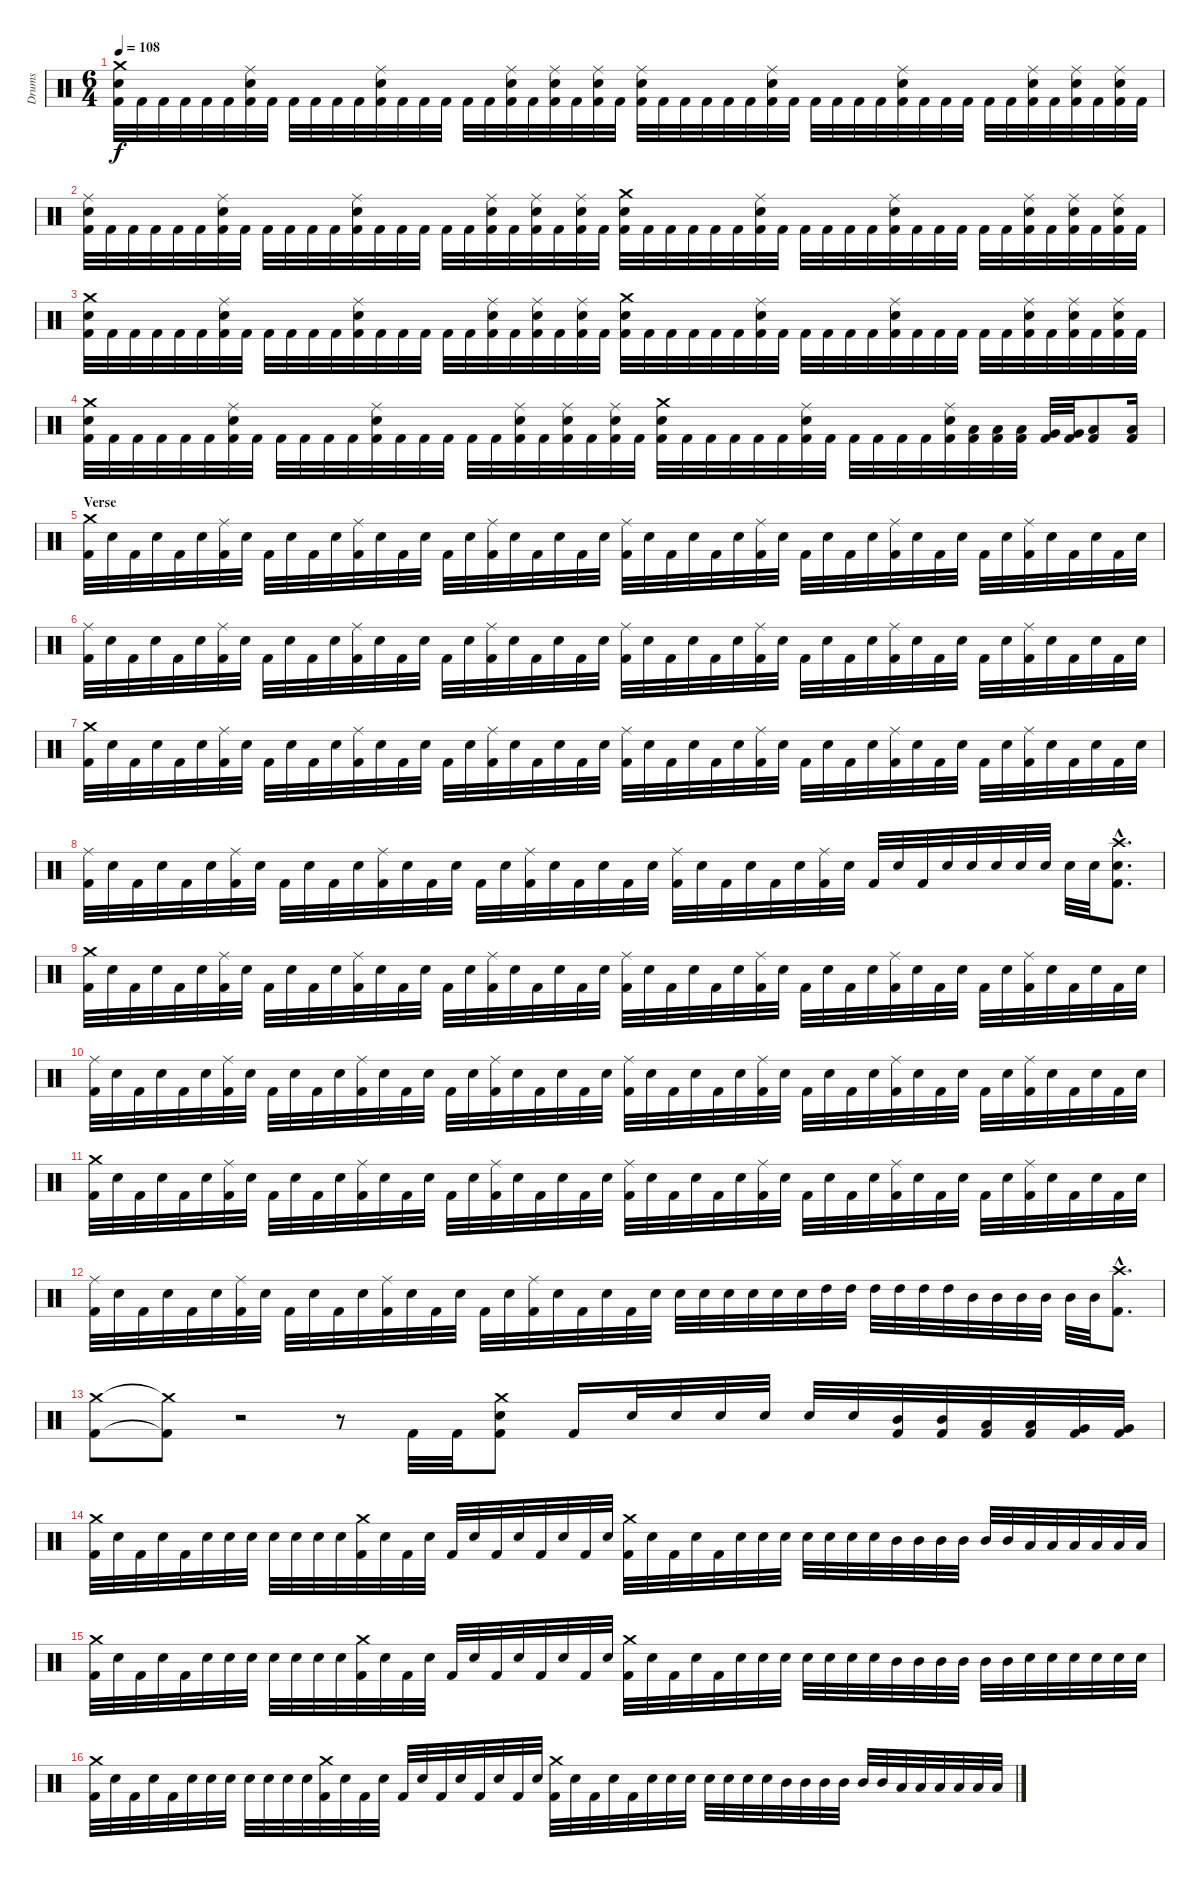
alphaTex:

\track ("Drums" "Drums") {instrument percussion}
\staff {score}
\articulation defaults
\ts (6 4)
\tempo 108
\clef neutral
\ks c
("Crash medium (hit)" "Electric Snare (hit)" "Kick (hit) 2").32{dy f} "Kick (hit) 2".32 "Kick (hit) 2".32 "Kick (hit) 2".32 "Kick (hit) 2".32 "Kick (hit) 2".32 ("Ride (middle)" "Electric Snare (hit)" "Kick (hit) 2").32 "Kick (hit) 2".32 "Kick (hit) 2".32 "Kick (hit) 2".32 "Kick (hit) 2".32 "Kick (hit) 2".32 ("Ride (middle)" "Electric Snare (hit)" "Kick (hit) 2").32 "Kick (hit) 2".32 "Kick (hit) 2".32 "Kick (hit) 2".32 "Kick (hit) 2".32 "Kick (hit) 2".32 ("Ride (middle)" "Electric Snare (hit)" "Kick (hit) 2").32 "Kick (hit) 2".32 ("Ride (middle)" "Electric Snare (hit)" "Kick (hit) 2").32 "Kick (hit) 2".32 ("Ride (middle)" "Electric Snare (hit)" "Kick (hit) 2").32 "Kick (hit) 2".32 ("Ride (middle)" "Electric Snare (hit)" "Kick (hit) 2").32 "Kick (hit) 2".32 "Kick (hit) 2".32 "Kick (hit) 2".32 "Kick (hit) 2".32 "Kick (hit) 2".32 ("Ride (middle)" "Electric Snare (hit)" "Kick (hit) 2").32 "Kick (hit) 2".32 "Kick (hit) 2".32 "Kick (hit) 2".32 "Kick (hit) 2".32 "Kick (hit) 2".32 ("Ride (middle)" "Electric Snare (hit)" "Kick (hit) 2").32 "Kick (hit) 2".32 "Kick (hit) 2".32 "Kick (hit) 2".32 "Kick (hit) 2".32 "Kick (hit) 2".32 ("Ride (middle)" "Electric Snare (hit)" "Kick (hit) 2").32 "Kick (hit) 2".32 ("Ride (middle)" "Electric Snare (hit)" "Kick (hit) 2").32 "Kick (hit) 2".32 ("Ride (middle)" "Electric Snare (hit)" "Kick (hit) 2").32 "Kick (hit) 2".32 |
("Ride (middle)" "Electric Snare (hit)" "Kick (hit) 2").32 "Kick (hit) 2".32 "Kick (hit) 2".32 "Kick (hit) 2".32 "Kick (hit) 2".32 "Kick (hit) 2".32 ("Ride (middle)" "Electric Snare (hit)" "Kick (hit) 2").32 "Kick (hit) 2".32 "Kick (hit) 2".32 "Kick (hit) 2".32 "Kick (hit) 2".32 "Kick (hit) 2".32 ("Ride (middle)" "Electric Snare (hit)" "Kick (hit) 2").32 "Kick (hit) 2".32 "Kick (hit) 2".32 "Kick (hit) 2".32 "Kick (hit) 2".32 "Kick (hit) 2".32 ("Ride (middle)" "Electric Snare (hit)" "Kick (hit) 2").32 "Kick (hit) 2".32 ("Ride (middle)" "Electric Snare (hit)" "Kick (hit) 2").32 "Kick (hit) 2".32 ("Ride (middle)" "Electric Snare (hit)" "Kick (hit) 2").32 "Kick (hit) 2".32 ("Crash medium (hit)" "Electric Snare (hit)" "Kick (hit) 2").32 "Kick (hit) 2".32 "Kick (hit) 2".32 "Kick (hit) 2".32 "Kick (hit) 2".32 "Kick (hit) 2".32 ("Ride (middle)" "Electric Snare (hit)" "Kick (hit) 2").32 "Kick (hit) 2".32 "Kick (hit) 2".32 "Kick (hit) 2".32 "Kick (hit) 2".32 "Kick (hit) 2".32 ("Ride (middle)" "Electric Snare (hit)" "Kick (hit) 2").32 "Kick (hit) 2".32 "Kick (hit) 2".32 "Kick (hit) 2".32 "Kick (hit) 2".32 "Kick (hit) 2".32 ("Ride (middle)" "Electric Snare (hit)" "Kick (hit) 2").32 "Kick (hit) 2".32 ("Ride (middle)" "Electric Snare (hit)" "Kick (hit) 2").32 "Kick (hit) 2".32 ("Ride (middle)" "Electric Snare (hit)" "Kick (hit) 2").32 "Kick (hit) 2".32 |
("Crash medium (hit)" "Electric Snare (hit)" "Kick (hit) 2").32 "Kick (hit) 2".32 "Kick (hit) 2".32 "Kick (hit) 2".32 "Kick (hit) 2".32 "Kick (hit) 2".32 ("Ride (middle)" "Electric Snare (hit)" "Kick (hit) 2").32 "Kick (hit) 2".32 "Kick (hit) 2".32 "Kick (hit) 2".32 "Kick (hit) 2".32 "Kick (hit) 2".32 ("Ride (middle)" "Electric Snare (hit)" "Kick (hit) 2").32 "Kick (hit) 2".32 "Kick (hit) 2".32 "Kick (hit) 2".32 "Kick (hit) 2".32 "Kick (hit) 2".32 ("Ride (middle)" "Electric Snare (hit)" "Kick (hit) 2").32 "Kick (hit) 2".32 ("Ride (middle)" "Electric Snare (hit)" "Kick (hit) 2").32 "Kick (hit) 2".32 ("Ride (middle)" "Electric Snare (hit)" "Kick (hit) 2").32 "Kick (hit) 2".32 ("Crash medium (hit)" "Electric Snare (hit)" "Kick (hit) 2").32 "Kick (hit) 2".32 "Kick (hit) 2".32 "Kick (hit) 2".32 "Kick (hit) 2".32 "Kick (hit) 2".32 ("Ride (middle)" "Electric Snare (hit)" "Kick (hit) 2").32 "Kick (hit) 2".32 "Kick (hit) 2".32 "Kick (hit) 2".32 "Kick (hit) 2".32 "Kick (hit) 2".32 ("Ride (middle)" "Electric Snare (hit)" "Kick (hit) 2").32 "Kick (hit) 2".32 "Kick (hit) 2".32 "Kick (hit) 2".32 "Kick (hit) 2".32 "Kick (hit) 2".32 ("Ride (middle)" "Electric Snare (hit)" "Kick (hit) 2").32 "Kick (hit) 2".32 ("Ride (middle)" "Electric Snare (hit)" "Kick (hit) 2").32 "Kick (hit) 2".32 ("Ride (middle)" "Electric Snare (hit)" "Kick (hit) 2").32 "Kick (hit) 2".32 |
("Crash medium (hit)" "Electric Snare (hit)" "Kick (hit) 2").32 "Kick (hit) 2".32 "Kick (hit) 2".32 "Kick (hit) 2".32 "Kick (hit) 2".32 "Kick (hit) 2".32 ("Ride (middle)" "Electric Snare (hit)" "Kick (hit) 2").32 "Kick (hit) 2".32 "Kick (hit) 2".32 "Kick (hit) 2".32 "Kick (hit) 2".32 "Kick (hit) 2".32 ("Ride (middle)" "Electric Snare (hit)" "Kick (hit) 2").32 "Kick (hit) 2".32 "Kick (hit) 2".32 "Kick (hit) 2".32 "Kick (hit) 2".32 "Kick (hit) 2".32 ("Ride (middle)" "Electric Snare (hit)" "Kick (hit) 2").32 "Kick (hit) 2".32 ("Ride (middle)" "Electric Snare (hit)" "Kick (hit) 2").32 "Kick (hit) 2".32 ("Ride (middle)" "Electric Snare (hit)" "Kick (hit) 2").32 "Kick (hit) 2".32 ("Crash medium (hit)" "Electric Snare (hit)" "Kick (hit) 2").32 "Kick (hit) 2".32 "Kick (hit) 2".32 "Kick (hit) 2".32 "Kick (hit) 2".32 "Kick (hit) 2".32 ("Ride (middle)" "Electric Snare (hit)" "Kick (hit) 2").32 "Kick (hit) 2".32 "Kick (hit) 2".32 "Kick (hit) 2".32 "Kick (hit) 2".32 "Kick (hit) 2".32 ("Ride (middle)" "Electric Snare (hit)" "Kick (hit) 2").32 ("Low Tom (hit)" "Kick (hit) 2").32 ("Low Tom (hit)" "Kick (hit) 2").32 ("Low Tom (hit)" "Kick (hit) 2").32 ("Very Low Tom (hit)" "Kick (hit) 2").32 ("Very Low Tom (hit)" "Kick (hit) 2").32 ("Low Floor Tom (hit)" "Kick (hit) 2").8 ("Low Floor Tom (hit)" "Kick (hit) 2").16 |
\section ("" "Verse")
("Crash medium (hit)" "Kick (hit) 2").32 "Electric Snare (hit)".32 "Kick (hit) 2".32 "Electric Snare (hit)".32 "Kick (hit) 2".32 "Electric Snare (hit)".32 ("Ride (middle)" "Kick (hit) 2").32 "Electric Snare (hit)".32 "Kick (hit) 2".32 "Electric Snare (hit)".32 "Kick (hit) 2".32 "Electric Snare (hit)".32 ("Ride (middle)" "Kick (hit) 2").32 "Electric Snare (hit)".32 "Kick (hit) 2".32 "Electric Snare (hit)".32 "Kick (hit) 2".32 "Electric Snare (hit)".32 ("Ride (middle)" "Kick (hit) 2").32 "Electric Snare (hit)".32 "Kick (hit) 2".32 "Electric Snare (hit)".32 "Kick (hit) 2".32 "Electric Snare (hit)".32 ("Ride (middle)" "Kick (hit) 2").32 "Electric Snare (hit)".32 "Kick (hit) 2".32 "Electric Snare (hit)".32 "Kick (hit) 2".32 "Electric Snare (hit)".32 ("Ride (middle)" "Kick (hit) 2").32 "Electric Snare (hit)".32 "Kick (hit) 2".32 "Electric Snare (hit)".32 "Kick (hit) 2".32 "Electric Snare (hit)".32 ("Ride (middle)" "Kick (hit) 2").32 "Electric Snare (hit)".32 "Kick (hit) 2".32 "Electric Snare (hit)".32 "Kick (hit) 2".32 "Electric Snare (hit)".32 ("Ride (middle)" "Kick (hit) 2").32 "Electric Snare (hit)".32 "Kick (hit) 2".32 "Electric Snare (hit)".32 "Kick (hit) 2".32 "Electric Snare (hit)".32 |
("Ride (middle)" "Kick (hit) 2").32 "Electric Snare (hit)".32 "Kick (hit) 2".32 "Electric Snare (hit)".32 "Kick (hit) 2".32 "Electric Snare (hit)".32 ("Ride (middle)" "Kick (hit) 2").32 "Electric Snare (hit)".32 "Kick (hit) 2".32 "Electric Snare (hit)".32 "Kick (hit) 2".32 "Electric Snare (hit)".32 ("Ride (middle)" "Kick (hit) 2").32 "Electric Snare (hit)".32 "Kick (hit) 2".32 "Electric Snare (hit)".32 "Kick (hit) 2".32 "Electric Snare (hit)".32 ("Ride (middle)" "Kick (hit) 2").32 "Electric Snare (hit)".32 "Kick (hit) 2".32 "Electric Snare (hit)".32 "Kick (hit) 2".32 "Electric Snare (hit)".32 ("Ride (middle)" "Kick (hit) 2").32 "Electric Snare (hit)".32 "Kick (hit) 2".32 "Electric Snare (hit)".32 "Kick (hit) 2".32 "Electric Snare (hit)".32 ("Ride (middle)" "Kick (hit) 2").32 "Electric Snare (hit)".32 "Kick (hit) 2".32 "Electric Snare (hit)".32 "Kick (hit) 2".32 "Electric Snare (hit)".32 ("Ride (middle)" "Kick (hit) 2").32 "Electric Snare (hit)".32 "Kick (hit) 2".32 "Electric Snare (hit)".32 "Kick (hit) 2".32 "Electric Snare (hit)".32 ("Ride (middle)" "Kick (hit) 2").32 "Electric Snare (hit)".32 "Kick (hit) 2".32 "Electric Snare (hit)".32 "Kick (hit) 2".32 "Electric Snare (hit)".32 |
("Crash medium (hit)" "Kick (hit) 2").32 "Electric Snare (hit)".32 "Kick (hit) 2".32 "Electric Snare (hit)".32 "Kick (hit) 2".32 "Electric Snare (hit)".32 ("Ride (middle)" "Kick (hit) 2").32 "Electric Snare (hit)".32 "Kick (hit) 2".32 "Electric Snare (hit)".32 "Kick (hit) 2".32 "Electric Snare (hit)".32 ("Ride (middle)" "Kick (hit) 2").32 "Electric Snare (hit)".32 "Kick (hit) 2".32 "Electric Snare (hit)".32 "Kick (hit) 2".32 "Electric Snare (hit)".32 ("Ride (middle)" "Kick (hit) 2").32 "Electric Snare (hit)".32 "Kick (hit) 2".32 "Electric Snare (hit)".32 "Kick (hit) 2".32 "Electric Snare (hit)".32 ("Ride (middle)" "Kick (hit) 2").32 "Electric Snare (hit)".32 "Kick (hit) 2".32 "Electric Snare (hit)".32 "Kick (hit) 2".32 "Electric Snare (hit)".32 ("Ride (middle)" "Kick (hit) 2").32 "Electric Snare (hit)".32 "Kick (hit) 2".32 "Electric Snare (hit)".32 "Kick (hit) 2".32 "Electric Snare (hit)".32 ("Ride (middle)" "Kick (hit) 2").32 "Electric Snare (hit)".32 "Kick (hit) 2".32 "Electric Snare (hit)".32 "Kick (hit) 2".32 "Electric Snare (hit)".32 ("Ride (middle)" "Kick (hit) 2").32 "Electric Snare (hit)".32 "Kick (hit) 2".32 "Electric Snare (hit)".32 "Kick (hit) 2".32 "Electric Snare (hit)".32 |
("Ride (middle)" "Kick (hit) 2").32 "Electric Snare (hit)".32 "Kick (hit) 2".32 "Electric Snare (hit)".32 "Kick (hit) 2".32 "Electric Snare (hit)".32 ("Ride (middle)" "Kick (hit) 2").32 "Electric Snare (hit)".32 "Kick (hit) 2".32 "Electric Snare (hit)".32 "Kick (hit) 2".32 "Electric Snare (hit)".32 ("Ride (middle)" "Kick (hit) 2").32 "Electric Snare (hit)".32 "Kick (hit) 2".32 "Electric Snare (hit)".32 "Kick (hit) 2".32 "Electric Snare (hit)".32 ("Ride (middle)" "Kick (hit) 2").32 "Electric Snare (hit)".32 "Kick (hit) 2".32 "Electric Snare (hit)".32 "Kick (hit) 2".32 "Electric Snare (hit)".32 ("Ride (middle)" "Kick (hit) 2").32 "Electric Snare (hit)".32 "Kick (hit) 2".32 "Electric Snare (hit)".32 "Kick (hit) 2".32 "Electric Snare (hit)".32 ("Ride (middle)" "Kick (hit) 2").32 "Electric Snare (hit)".32 "Kick (hit) 2".32 "Electric Snare (hit)".32 "Kick (hit) 2".32 "Electric Snare (hit)".32 "Electric Snare (hit)".32 "Electric Snare (hit)".32 "Electric Snare (hit)".32 "Electric Snare (hit)".32 "Electric Snare (hit)".32 "Electric Snare (hit)".32 ("Crash high (hit)"{hac} "Electric Snare (hit)"{hac} "Kick (hit) 2"{hac}).8{d} |
("Crash medium (hit)" "Kick (hit) 2").32 "Electric Snare (hit)".32 "Kick (hit) 2".32 "Electric Snare (hit)".32 "Kick (hit) 2".32 "Electric Snare (hit)".32 ("Ride (middle)" "Kick (hit) 2").32 "Electric Snare (hit)".32 "Kick (hit) 2".32 "Electric Snare (hit)".32 "Kick (hit) 2".32 "Electric Snare (hit)".32 ("Ride (middle)" "Kick (hit) 2").32 "Electric Snare (hit)".32 "Kick (hit) 2".32 "Electric Snare (hit)".32 "Kick (hit) 2".32 "Electric Snare (hit)".32 ("Ride (middle)" "Kick (hit) 2").32 "Electric Snare (hit)".32 "Kick (hit) 2".32 "Electric Snare (hit)".32 "Kick (hit) 2".32 "Electric Snare (hit)".32 ("Ride (middle)" "Kick (hit) 2").32 "Electric Snare (hit)".32 "Kick (hit) 2".32 "Electric Snare (hit)".32 "Kick (hit) 2".32 "Electric Snare (hit)".32 ("Ride (middle)" "Kick (hit) 2").32 "Electric Snare (hit)".32 "Kick (hit) 2".32 "Electric Snare (hit)".32 "Kick (hit) 2".32 "Electric Snare (hit)".32 ("Ride (middle)" "Kick (hit) 2").32 "Electric Snare (hit)".32 "Kick (hit) 2".32 "Electric Snare (hit)".32 "Kick (hit) 2".32 "Electric Snare (hit)".32 ("Ride (middle)" "Kick (hit) 2").32 "Electric Snare (hit)".32 "Kick (hit) 2".32 "Electric Snare (hit)".32 "Kick (hit) 2".32 "Electric Snare (hit)".32 |
("Ride (middle)" "Kick (hit) 2").32 "Electric Snare (hit)".32 "Kick (hit) 2".32 "Electric Snare (hit)".32 "Kick (hit) 2".32 "Electric Snare (hit)".32 ("Ride (middle)" "Kick (hit) 2").32 "Electric Snare (hit)".32 "Kick (hit) 2".32 "Electric Snare (hit)".32 "Kick (hit) 2".32 "Electric Snare (hit)".32 ("Ride (middle)" "Kick (hit) 2").32 "Electric Snare (hit)".32 "Kick (hit) 2".32 "Electric Snare (hit)".32 "Kick (hit) 2".32 "Electric Snare (hit)".32 ("Ride (middle)" "Kick (hit) 2").32 "Electric Snare (hit)".32 "Kick (hit) 2".32 "Electric Snare (hit)".32 "Kick (hit) 2".32 "Electric Snare (hit)".32 ("Ride (middle)" "Kick (hit) 2").32 "Electric Snare (hit)".32 "Kick (hit) 2".32 "Electric Snare (hit)".32 "Kick (hit) 2".32 "Electric Snare (hit)".32 ("Ride (middle)" "Kick (hit) 2").32 "Electric Snare (hit)".32 "Kick (hit) 2".32 "Electric Snare (hit)".32 "Kick (hit) 2".32 "Electric Snare (hit)".32 ("Ride (middle)" "Kick (hit) 2").32 "Electric Snare (hit)".32 "Kick (hit) 2".32 "Electric Snare (hit)".32 "Kick (hit) 2".32 "Electric Snare (hit)".32 ("Ride (middle)" "Kick (hit) 2").32 "Electric Snare (hit)".32 "Kick (hit) 2".32 "Electric Snare (hit)".32 "Kick (hit) 2".32 "Electric Snare (hit)".32 |
("Crash medium (hit)" "Kick (hit) 2").32 "Electric Snare (hit)".32 "Kick (hit) 2".32 "Electric Snare (hit)".32 "Kick (hit) 2".32 "Electric Snare (hit)".32 ("Ride (middle)" "Kick (hit) 2").32 "Electric Snare (hit)".32 "Kick (hit) 2".32 "Electric Snare (hit)".32 "Kick (hit) 2".32 "Electric Snare (hit)".32 ("Ride (middle)" "Kick (hit) 2").32 "Electric Snare (hit)".32 "Kick (hit) 2".32 "Electric Snare (hit)".32 "Kick (hit) 2".32 "Electric Snare (hit)".32 ("Ride (middle)" "Kick (hit) 2").32 "Electric Snare (hit)".32 "Kick (hit) 2".32 "Electric Snare (hit)".32 "Kick (hit) 2".32 "Electric Snare (hit)".32 ("Ride (middle)" "Kick (hit) 2").32 "Electric Snare (hit)".32 "Kick (hit) 2".32 "Electric Snare (hit)".32 "Kick (hit) 2".32 "Electric Snare (hit)".32 ("Ride (middle)" "Kick (hit) 2").32 "Electric Snare (hit)".32 "Kick (hit) 2".32 "Electric Snare (hit)".32 "Kick (hit) 2".32 "Electric Snare (hit)".32 ("Ride (middle)" "Kick (hit) 2").32 "Electric Snare (hit)".32 "Kick (hit) 2".32 "Electric Snare (hit)".32 "Kick (hit) 2".32 "Electric Snare (hit)".32 ("Ride (middle)" "Kick (hit) 2").32 "Electric Snare (hit)".32 "Kick (hit) 2".32 "Electric Snare (hit)".32 "Kick (hit) 2".32 "Electric Snare (hit)".32 |
("Ride (middle)" "Kick (hit) 2").32 "Electric Snare (hit)".32 "Kick (hit) 2".32 "Electric Snare (hit)".32 "Kick (hit) 2".32 "Electric Snare (hit)".32 ("Ride (middle)" "Kick (hit) 2").32 "Electric Snare (hit)".32 "Kick (hit) 2".32 "Electric Snare (hit)".32 "Kick (hit) 2".32 "Electric Snare (hit)".32 ("Ride (middle)" "Kick (hit) 2").32 "Electric Snare (hit)".32 "Kick (hit) 2".32 "Electric Snare (hit)".32 "Kick (hit) 2".32 "Electric Snare (hit)".32 ("Ride (middle)" "Kick (hit) 2").32 "Electric Snare (hit)".32 "Kick (hit) 2".32 "Electric Snare (hit)".32 "Kick (hit) 2".32 "Electric Snare (hit)".32 "Electric Snare (hit)".32 "Electric Snare (hit)".32 "Electric Snare (hit)".32 "Electric Snare (hit)".32 "Electric Snare (hit)".32 "Electric Snare (hit)".32 "High Tom (hit)".32 "High Tom (hit)".32 "High Tom (hit)".32 "High Tom (hit)".32 "High Tom (hit)".32 "High Tom (hit)".32 "Mid Tom (hit)".32 "Mid Tom (hit)".32 "Mid Tom (hit)".32 "Mid Tom (hit)".32 "Mid Tom (hit)".32 "Mid Tom (hit)".32 ("Crash high (hit)"{hac} "Kick (hit) 2"{hac}).8{d} |
\section ("" "")
("Crash medium (hit)" "Kick (hit) 2").8 ("Crash medium (hit)"{t} "Kick (hit) 2"{t}).8{volume 0} r.2 r.8 "Kick (hit) 2".32{volume 16} "Kick (hit) 2".32 ("Crash medium (hit)" "Electric Snare (hit)" "Kick (hit) 2").8 "Kick (hit) 2".16 "Electric Snare (hit)".32 "Electric Snare (hit)".32 "Electric Snare (hit)".32 "Electric Snare (hit)".32 "Electric Snare (hit)".32 "Electric Snare (hit)".32 ("Mid Tom (hit)" "Kick (hit) 2").32 ("Mid Tom (hit)" "Kick (hit) 2").32 ("Low Tom (hit)" "Kick (hit) 2").32 ("Low Tom (hit)" "Kick (hit) 2").32 ("Very Low Tom (hit)" "Kick (hit) 2").32 ("Very Low Tom (hit)" "Kick (hit) 2").32 |
("Crash medium (hit)" "Kick (hit) 2").32 "Electric Snare (hit)".32 "Kick (hit) 2".32 "Electric Snare (hit)".32 "Kick (hit) 2".32 "Electric Snare (hit)".32 "Electric Snare (hit)".32 "Electric Snare (hit)".32 "Electric Snare (hit)".32 "Electric Snare (hit)".32 "Electric Snare (hit)".32 "Electric Snare (hit)".32 ("Crash medium (hit)" "Kick (hit) 2").32 "Electric Snare (hit)".32 "Kick (hit) 2".32 "Electric Snare (hit)".32 "Kick (hit) 2".32 "Electric Snare (hit)".32 "Kick (hit) 2".32 "Electric Snare (hit)".32 "Kick (hit) 2".32 "Electric Snare (hit)".32 "Kick (hit) 2".32 "Electric Snare (hit)".32 ("Crash medium (hit)" "Kick (hit) 2").32 "Electric Snare (hit)".32 "Kick (hit) 2".32 "Electric Snare (hit)".32 "Kick (hit) 2".32 "Electric Snare (hit)".32 "Electric Snare (hit)".32 "Electric Snare (hit)".32 "Electric Snare (hit)".32 "Electric Snare (hit)".32 "Electric Snare (hit)".32 "Electric Snare (hit)".32 "Mid Tom (hit)".32 "Mid Tom (hit)".32 "Mid Tom (hit)".32 "Mid Tom (hit)".32 "Mid Tom (hit)".32 "Mid Tom (hit)".32 "Low Tom (hit)".32 "Low Tom (hit)".32 "Low Tom (hit)".32 "Low Tom (hit)".32 "Low Tom (hit)".32 "Low Tom (hit)".32 |
("Crash medium (hit)" "Kick (hit) 2").32 "Electric Snare (hit)".32 "Kick (hit) 2".32 "Electric Snare (hit)".32 "Kick (hit) 2".32 "Electric Snare (hit)".32 "Electric Snare (hit)".32 "Electric Snare (hit)".32 "Electric Snare (hit)".32 "Electric Snare (hit)".32 "Electric Snare (hit)".32 "Electric Snare (hit)".32 ("Crash medium (hit)" "Kick (hit) 2").32 "Electric Snare (hit)".32 "Kick (hit) 2".32 "Electric Snare (hit)".32 "Kick (hit) 2".32 "Electric Snare (hit)".32 "Kick (hit) 2".32 "Electric Snare (hit)".32 "Kick (hit) 2".32 "Electric Snare (hit)".32 "Kick (hit) 2".32 "Electric Snare (hit)".32 ("Crash medium (hit)" "Kick (hit) 2").32 "Electric Snare (hit)".32 "Kick (hit) 2".32 "Electric Snare (hit)".32 "Kick (hit) 2".32 "Electric Snare (hit)".32 "Electric Snare (hit)".32 "Electric Snare (hit)".32 "Electric Snare (hit)".32 "Electric Snare (hit)".32 "Electric Snare (hit)".32 "Electric Snare (hit)".32 "Mid Tom (hit)".32 "Mid Tom (hit)".32 "Mid Tom (hit)".32 "Mid Tom (hit)".32 "Mid Tom (hit)".32 "Mid Tom (hit)".32 "Electric Snare (hit)".32 "Electric Snare (hit)".32 "Electric Snare (hit)".32 "Electric Snare (hit)".32 "Electric Snare (hit)".32 "Electric Snare (hit)".32 |
("Crash medium (hit)" "Kick (hit) 2").32 "Electric Snare (hit)".32 "Kick (hit) 2".32 "Electric Snare (hit)".32 "Kick (hit) 2".32 "Electric Snare (hit)".32 "Electric Snare (hit)".32 "Electric Snare (hit)".32 "Electric Snare (hit)".32 "Electric Snare (hit)".32 "Electric Snare (hit)".32 "Electric Snare (hit)".32 ("Crash medium (hit)" "Kick (hit) 2").32 "Electric Snare (hit)".32 "Kick (hit) 2".32 "Electric Snare (hit)".32 "Kick (hit) 2".32 "Electric Snare (hit)".32 "Kick (hit) 2".32 "Electric Snare (hit)".32 "Kick (hit) 2".32 "Electric Snare (hit)".32 "Kick (hit) 2".32 "Electric Snare (hit)".32 ("Crash medium (hit)" "Kick (hit) 2").32 "Electric Snare (hit)".32 "Kick (hit) 2".32 "Electric Snare (hit)".32 "Kick (hit) 2".32 "Electric Snare (hit)".32 "Electric Snare (hit)".32 "Electric Snare (hit)".32 "Electric Snare (hit)".32 "Electric Snare (hit)".32 "Electric Snare (hit)".32 "Electric Snare (hit)".32 "Mid Tom (hit)".32 "Mid Tom (hit)".32 "Mid Tom (hit)".32 "Mid Tom (hit)".32 "Mid Tom (hit)".32 "Mid Tom (hit)".32 "Low Tom (hit)".32 "Low Tom (hit)".32 "Low Tom (hit)".32 "Low Tom (hit)".32 "Low Tom (hit)".32 "Low Tom (hit)".32
